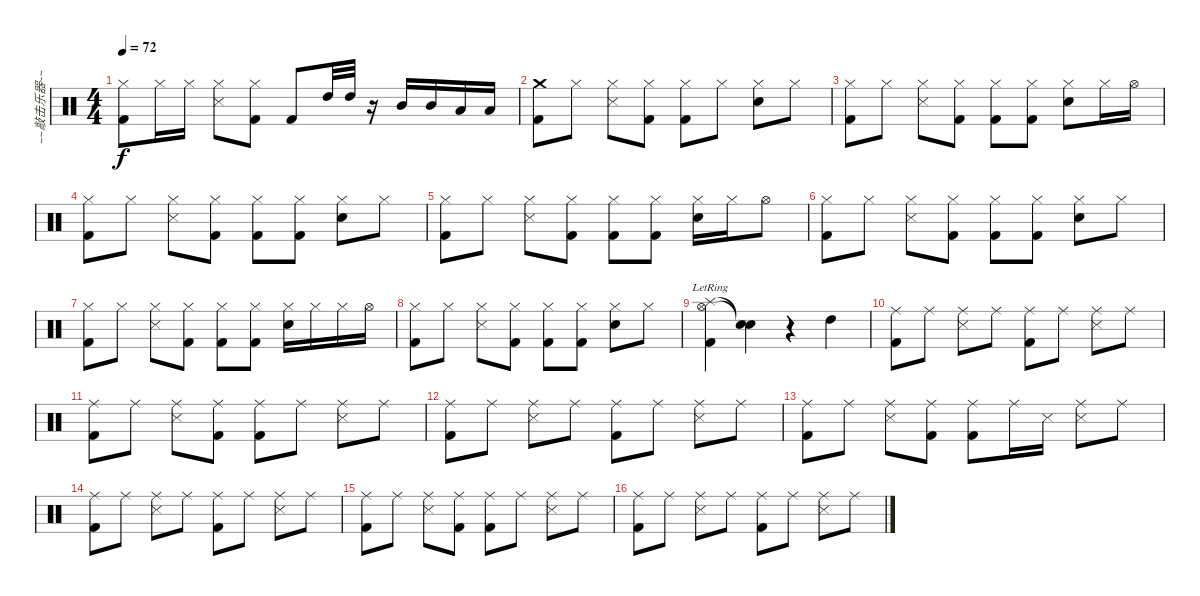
\track ("~~敲击乐器~~" "~~敲击乐器~~") {instrument percussion}
\staff {score}
\articulation defaults
\ts (4 4)
\tempo 72
\clef neutral
\ks c
("Hi-Hat (closed)" "Kick (hit) 2").8{dy f} "Hi-Hat (closed)".16 "Hi-Hat (closed)".16 ("Snare (side stick) 3" "Hi-Hat (closed)").8 ("Hi-Hat (closed)" "Kick (hit) 2").8 "Kick (hit) 2".8 "High Tom (hit)".32 "High Tom (hit)".32 r.16 "Mid Tom (hit)".16 "Mid Tom (hit)".16 "Low Tom (hit)".16 "Low Tom (hit)".16 |
("Crash medium (hit)" "Kick (hit) 2").8 "Hi-Hat (closed)".8 ("Snare (side stick) 3" "Hi-Hat (closed)").8 ("Hi-Hat (closed)" "Kick (hit) 2").8 ("Hi-Hat (closed)" "Kick (hit) 2").8 "Hi-Hat (closed)".8 ("Snare (hit) 2" "Hi-Hat (closed)").8 "Hi-Hat (closed)".8 |
("Hi-Hat (closed)" "Kick (hit) 2").8 "Hi-Hat (closed)".8 ("Snare (side stick) 3" "Hi-Hat (closed)").8 ("Hi-Hat (closed)" "Kick (hit) 2").8 ("Hi-Hat (closed)" "Kick (hit) 2").8 ("Hi-Hat (closed)" "Kick (hit) 2").8 ("Snare (hit) 2" "Hi-Hat (closed)").8 "Hi-Hat (closed)".16 "Hi-Hat (open)".16 |
("Hi-Hat (closed)" "Kick (hit) 2").8 "Hi-Hat (closed)".8 ("Snare (side stick) 3" "Hi-Hat (closed)").8 ("Hi-Hat (closed)" "Kick (hit) 2").8 ("Hi-Hat (closed)" "Kick (hit) 2").8 ("Hi-Hat (closed)" "Kick (hit) 2").8 ("Snare (hit) 2" "Hi-Hat (closed)").8 "Hi-Hat (closed)".8 |
("Hi-Hat (closed)" "Kick (hit) 2").8 "Hi-Hat (closed)".8 ("Snare (side stick) 3" "Hi-Hat (closed)").8 ("Hi-Hat (closed)" "Kick (hit) 2").8 ("Hi-Hat (closed)" "Kick (hit) 2").8 ("Hi-Hat (closed)" "Kick (hit) 2").8 ("Snare (hit) 2" "Hi-Hat (closed)").16 "Hi-Hat (closed)".16 "Hi-Hat (open)".8 |
("Hi-Hat (closed)" "Kick (hit) 2").8 "Hi-Hat (closed)".8 ("Snare (side stick) 3" "Hi-Hat (closed)").8 ("Hi-Hat (closed)" "Kick (hit) 2").8 ("Hi-Hat (closed)" "Kick (hit) 2").8 ("Hi-Hat (closed)" "Kick (hit) 2").8 ("Snare (hit) 2" "Hi-Hat (closed)").8 "Hi-Hat (closed)".8 |
("Hi-Hat (closed)" "Kick (hit) 2").8 "Hi-Hat (closed)".8 ("Snare (side stick) 3" "Hi-Hat (closed)").8 ("Hi-Hat (closed)" "Kick (hit) 2").8 ("Hi-Hat (closed)" "Kick (hit) 2").8 ("Hi-Hat (closed)" "Kick (hit) 2").8 ("Snare (hit) 2" "Hi-Hat (closed)").16 "Hi-Hat (closed)".16 "Hi-Hat (closed)".16 "Hi-Hat (open)".16 |
("Hi-Hat (closed)" "Kick (hit) 2").8 "Hi-Hat (closed)".8 ("Snare (side stick) 3" "Hi-Hat (closed)").8 ("Hi-Hat (closed)" "Kick (hit) 2").8 ("Hi-Hat (closed)" "Kick (hit) 2").8 ("Hi-Hat (closed)" "Kick (hit) 2").8 ("Snare (hit) 2" "Hi-Hat (closed)").8 "Hi-Hat (closed)".8 |
("Splash (hit)"{lr} "Hi-Hat (open)"{lr} "Kick (hit) 2").4 ("Snare (hit)"{t} "Snare (hit)"{t}).4 r.4 "High Tom (hit)".4 |
("Ride (middle)" "Kick (hit) 2").8 "Ride (middle)".8 ("Snare (side stick) 3" "Ride (middle)").8 "Ride (middle)".8 ("Ride (middle)" "Kick (hit) 2").8 "Ride (middle)".8 ("Snare (side stick) 3" "Ride (middle)").8 "Ride (middle)".8 |
("Ride (middle)" "Kick (hit) 2").8 "Ride (middle)".8 ("Snare (side stick) 3" "Ride (middle)").8 ("Ride (middle)" "Kick (hit) 2").8 ("Ride (middle)" "Kick (hit) 2").8 "Ride (middle)".8 ("Snare (side stick) 3" "Ride (middle)").8 "Ride (middle)".8 |
("Ride (middle)" "Kick (hit) 2").8 "Ride (middle)".8 ("Snare (side stick) 3" "Ride (middle)").8 "Ride (middle)".8 ("Ride (middle)" "Kick (hit) 2").8 "Ride (middle)".8 ("Snare (side stick) 3" "Ride (middle)").8 "Ride (middle)".8 |
("Ride (middle)" "Kick (hit) 2").8 "Ride (middle)".8 ("Snare (side stick) 3" "Ride (middle)").8 ("Ride (middle)" "Kick (hit) 2").8 ("Ride (middle)" "Kick (hit) 2").8 "Ride (middle)".16 "Snare (side stick) 3".16 ("Snare (side stick) 3" "Ride (middle)").8 "Ride (middle)".8 |
("Ride (middle)" "Kick (hit) 2").8 "Ride (middle)".8 ("Snare (side stick) 3" "Ride (middle)").8 "Ride (middle)".8 ("Ride (middle)" "Kick (hit) 2").8 "Ride (middle)".8 ("Snare (side stick) 3" "Ride (middle)").8 "Ride (middle)".8 |
("Ride (middle)" "Kick (hit) 2").8 "Ride (middle)".8 ("Snare (side stick) 3" "Ride (middle)").8 ("Ride (middle)" "Kick (hit) 2").8 ("Ride (middle)" "Kick (hit) 2").8 "Ride (middle)".8 ("Snare (side stick) 3" "Ride (middle)").8 "Ride (middle)".8 |
("Ride (middle)" "Kick (hit) 2").8 "Ride (middle)".8 ("Snare (side stick) 3" "Ride (middle)").8 "Ride (middle)".8 ("Ride (middle)" "Kick (hit) 2").8 "Ride (middle)".8 ("Snare (side stick) 3" "Ride (middle)").8 "Ride (middle)".8
